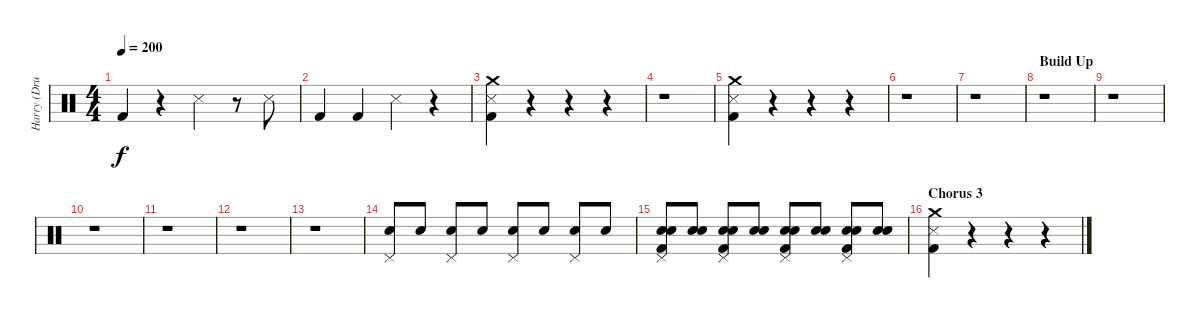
\track ("Harry (Drums)" "Harry (Dru") {instrument percussion}
\staff {score}
\articulation defaults
\ts (4 4)
\tempo 200
\clef neutral
\ks c "Kick (hit) 2".4{dy f}
r.4 "Snare (side stick) 3".4 r.8 "Snare (side stick) 3".8 |
"Kick (hit) 2".4 "Kick (hit) 2".4 "Snare (side stick) 3".4 r.4 |
("Kick (hit) 2" "Snare (side stick) 3" "Crash medium (hit)").4 r.4 r.4 r.4 |
r.1 |
("Kick (hit) 2" "Snare (side stick) 3" "Crash medium (hit)").4 r.4 r.4 r.4 |
r.1 |
r.1 |
\section ("" "Build Up")
r.1 |
r.1 |
r.1 |
r.1 |
r.1 |
r.1 |
("Snare (hit) 2" "Pedal Hi-Hat (hit)").8 "Snare (hit) 2".8 ("Snare (hit) 2" "Pedal Hi-Hat (hit)").8 "Snare (hit) 2".8 ("Snare (hit) 2" "Pedal Hi-Hat (hit)").8 "Snare (hit) 2".8 ("Snare (hit) 2" "Pedal Hi-Hat (hit)").8 "Snare (hit) 2".8 |
("Snare (hit) 2" "Kick (hit) 2" "Electric Snare (hit)" "Pedal Hi-Hat (hit)").8 ("Snare (hit) 2" "Electric Snare (hit)").8 ("Snare (hit) 2" "Kick (hit) 2" "Electric Snare (hit)" "Pedal Hi-Hat (hit)").8 ("Snare (hit) 2" "Electric Snare (hit)").8 ("Snare (hit) 2" "Kick (hit) 2" "Electric Snare (hit)" "Pedal Hi-Hat (hit)").8 ("Snare (hit) 2" "Electric Snare (hit)").8 ("Snare (hit) 2" "Kick (hit) 2" "Electric Snare (hit)" "Pedal Hi-Hat (hit)").8 ("Snare (hit) 2" "Electric Snare (hit)").8 |
\section ("" "Chorus 3")
("Kick (hit) 2" "Snare (side stick) 3" "Crash medium (hit)").4 r.4 r.4 r.4
